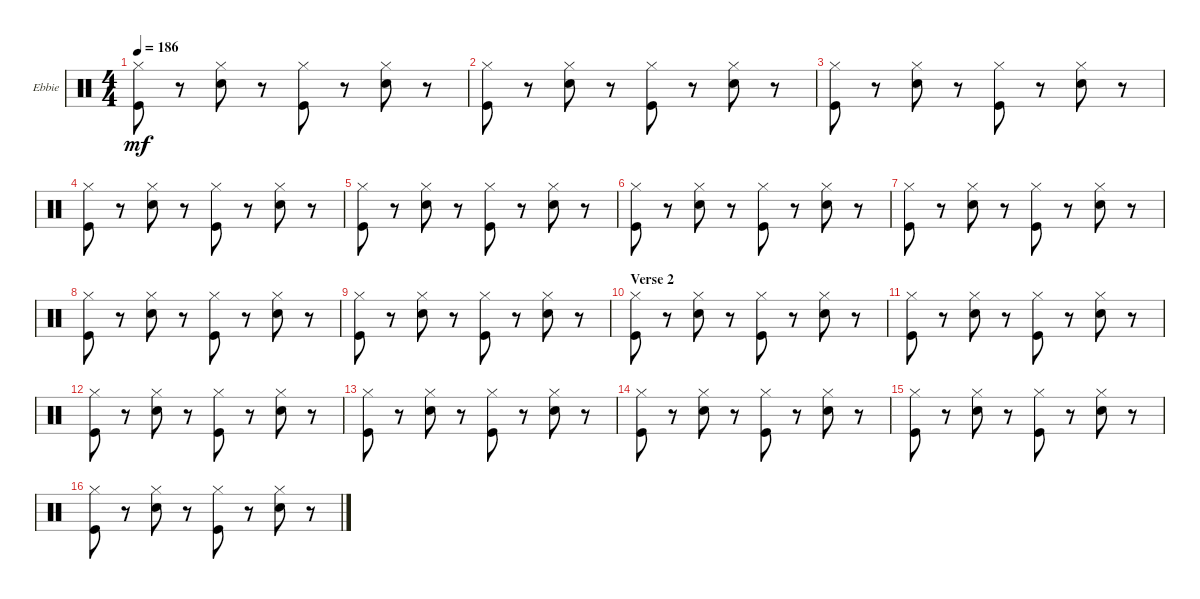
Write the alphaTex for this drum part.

\defaultSystemsLayout 4
\bracketExtendMode groupsimilarinstruments
\firstSystemTrackNameOrientation horizontal
\otherSystemsTrackNameOrientation horizontal
\track ("Ebbie Hardy" "Ebbie") {instrument percussion}
\staff {score}
\articulation defaults
\ts (4 4)
\tempo 186
\clef neutral
\scale
0.333333
\ks c
("Hi-Hat (closed)" "Kick (hit)").8{dy mf} r.8 ("Hi-Hat (closed)" "Snare (hit) 2").8 r.8 ("Hi-Hat (closed)" "Kick (hit)").8 r.8 ("Hi-Hat (closed)" "Snare (hit) 2").8 r.8 |
\scale
0.333333 ("Hi-Hat (closed)" "Kick (hit)").8 r.8 ("Hi-Hat (closed)" "Snare (hit) 2").8 r.8 ("Hi-Hat (closed)" "Kick (hit)").8 r.8 ("Hi-Hat (closed)" "Snare (hit) 2").8 r.8 |
\scale
0.333333 ("Hi-Hat (closed)" "Kick (hit)").8 r.8 ("Hi-Hat (closed)" "Snare (hit) 2").8 r.8 ("Hi-Hat (closed)" "Kick (hit)").8 r.8 ("Hi-Hat (closed)" "Snare (hit) 2").8 r.8 |
\scale
0.333333 ("Hi-Hat (closed)" "Kick (hit)").8 r.8 ("Hi-Hat (closed)" "Snare (hit) 2").8 r.8 ("Hi-Hat (closed)" "Kick (hit)").8 r.8 ("Hi-Hat (closed)" "Snare (hit) 2").8 r.8 |
\scale
0.333333 ("Hi-Hat (closed)" "Kick (hit)").8 r.8 ("Hi-Hat (closed)" "Snare (hit) 2").8 r.8 ("Hi-Hat (closed)" "Kick (hit)").8 r.8 ("Hi-Hat (closed)" "Snare (hit) 2").8 r.8 |
\scale
0.333333 ("Hi-Hat (closed)" "Kick (hit)").8 r.8 ("Hi-Hat (closed)" "Snare (hit) 2").8 r.8 ("Hi-Hat (closed)" "Kick (hit)").8 r.8 ("Hi-Hat (closed)" "Snare (hit) 2").8 r.8 |
\scale
0.333333 ("Hi-Hat (closed)" "Kick (hit)").8 r.8 ("Hi-Hat (closed)" "Snare (hit) 2").8 r.8 ("Hi-Hat (closed)" "Kick (hit)").8 r.8 ("Hi-Hat (closed)" "Snare (hit) 2").8 r.8 |
\scale
0.333333 ("Hi-Hat (closed)" "Kick (hit)").8 r.8 ("Hi-Hat (closed)" "Snare (hit) 2").8 r.8 ("Hi-Hat (closed)" "Kick (hit)").8 r.8 ("Hi-Hat (closed)" "Snare (hit) 2").8 r.8 |
\scale
0.333333 ("Hi-Hat (closed)" "Kick (hit)").8 r.8 ("Hi-Hat (closed)" "Snare (hit) 2").8 r.8 ("Hi-Hat (closed)" "Kick (hit)").8 r.8 ("Hi-Hat (closed)" "Snare (hit) 2").8 r.8 |
\section ("" "Verse 2")
\scale
0.333333 ("Hi-Hat (closed)" "Kick (hit)").8 r.8 ("Hi-Hat (closed)" "Snare (hit) 2").8 r.8 ("Hi-Hat (closed)" "Kick (hit)").8 r.8 ("Hi-Hat (closed)" "Snare (hit) 2").8 r.8 |
\scale
0.333333 ("Hi-Hat (closed)" "Kick (hit)").8 r.8 ("Hi-Hat (closed)" "Snare (hit) 2").8 r.8 ("Hi-Hat (closed)" "Kick (hit)").8 r.8 ("Hi-Hat (closed)" "Snare (hit) 2").8 r.8 |
\scale
0.333333 ("Hi-Hat (closed)" "Kick (hit)").8 r.8 ("Hi-Hat (closed)" "Snare (hit) 2").8 r.8 ("Hi-Hat (closed)" "Kick (hit)").8 r.8 ("Hi-Hat (closed)" "Snare (hit) 2").8 r.8 |
\scale
0.333333 ("Hi-Hat (closed)" "Kick (hit)").8 r.8 ("Hi-Hat (closed)" "Snare (hit) 2").8 r.8 ("Hi-Hat (closed)" "Kick (hit)").8 r.8 ("Hi-Hat (closed)" "Snare (hit) 2").8 r.8 |
\scale
0.333333 ("Hi-Hat (closed)" "Kick (hit)").8 r.8 ("Hi-Hat (closed)" "Snare (hit) 2").8 r.8 ("Hi-Hat (closed)" "Kick (hit)").8 r.8 ("Hi-Hat (closed)" "Snare (hit) 2").8 r.8 |
\scale
0.333333 ("Hi-Hat (closed)" "Kick (hit)").8 r.8 ("Hi-Hat (closed)" "Snare (hit) 2").8 r.8 ("Hi-Hat (closed)" "Kick (hit)").8 r.8 ("Hi-Hat (closed)" "Snare (hit) 2").8 r.8 |
\scale
0.333333 ("Hi-Hat (closed)" "Kick (hit)").8 r.8 ("Hi-Hat (closed)" "Snare (hit) 2").8 r.8 ("Hi-Hat (closed)" "Kick (hit)").8 r.8 ("Hi-Hat (closed)" "Snare (hit) 2").8 r.8
